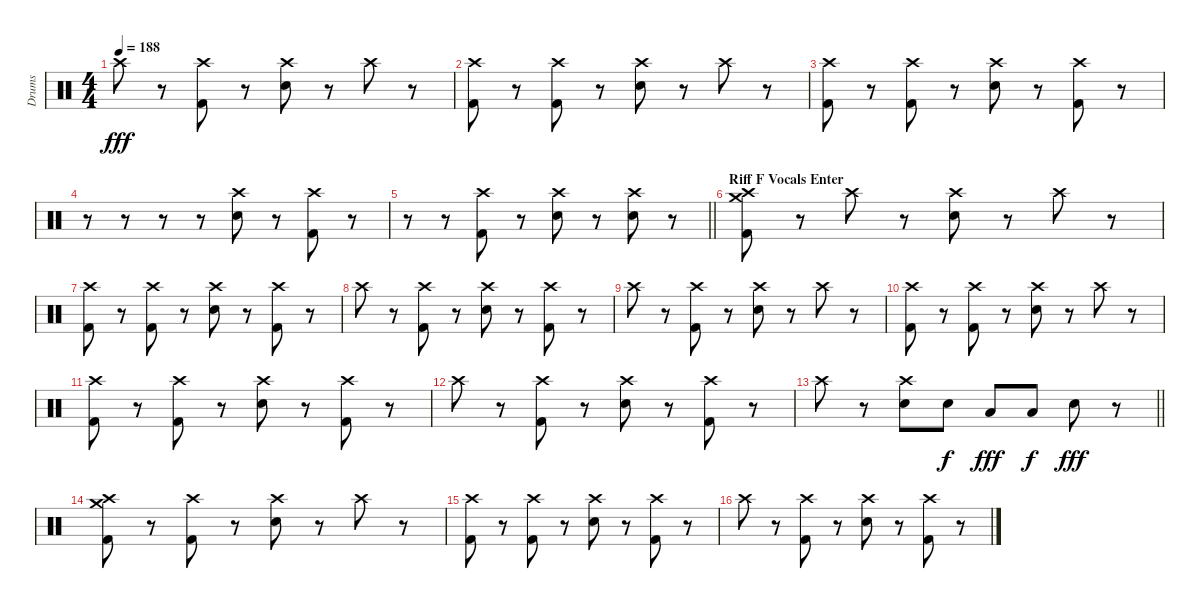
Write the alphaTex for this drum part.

\track ("Drums" "Drums") {instrument percussion}
\staff {score}
\articulation defaults
\ts (4 4)
\tempo 188
\clef neutral
\ks c "Crash high (hit)".8{dy fff}
r.8 ("Crash high (hit)" "Kick (hit) 2").8 r.8 ("Crash high (hit)" "Electric Snare (hit)").8 r.8 "Crash high (hit)".8 r.8 |
("Crash high (hit)" "Kick (hit) 2").8 r.8 ("Crash high (hit)" "Kick (hit) 2").8 r.8 ("Crash high (hit)" "Electric Snare (hit)").8 r.8 "Crash high (hit)".8 r.8 |
("Crash high (hit)" "Kick (hit) 2").8 r.8 ("Crash high (hit)" "Kick (hit) 2").8 r.8 ("Crash high (hit)" "Electric Snare (hit)").8 r.8 ("Crash high (hit)" "Kick (hit) 2").8 r.8 |
r.8 r.8 r.8 r.8 ("Crash high (hit)" "Electric Snare (hit)").8 r.8 ("Crash high (hit)" "Kick (hit) 2").8 r.8 |
\barLineRight lightlight
r.8 r.8 ("Crash high (hit)" "Kick (hit) 2").8 r.8 ("Crash high (hit)" "Electric Snare (hit)").8 r.8 ("Crash high (hit)" "Electric Snare (hit)").8 r.8 |
\section ("" "Riff F Vocals Enter")
("Crash medium (hit)" "Crash high (hit)" "Kick (hit) 2").8 r.8 "Crash high (hit)".8 r.8 ("Crash high (hit)" "Electric Snare (hit)").8 r.8 "Crash high (hit)".8 r.8 |
("Crash high (hit)" "Kick (hit) 2").8 r.8 ("Crash high (hit)" "Kick (hit) 2").8 r.8 ("Crash high (hit)" "Electric Snare (hit)").8 r.8 ("Crash high (hit)" "Kick (hit) 2").8 r.8 |
"Crash high (hit)".8 r.8 ("Crash high (hit)" "Kick (hit) 2").8 r.8 ("Crash high (hit)" "Electric Snare (hit)").8 r.8 ("Crash high (hit)" "Kick (hit) 2").8 r.8 |
"Crash high (hit)".8 r.8 ("Crash high (hit)" "Kick (hit) 2").8 r.8 ("Crash high (hit)" "Electric Snare (hit)").8 r.8 "Crash high (hit)".8 r.8 |
("Crash high (hit)" "Kick (hit) 2").8 r.8 ("Crash high (hit)" "Kick (hit) 2").8 r.8 ("Crash high (hit)" "Electric Snare (hit)").8 r.8 "Crash high (hit)".8 r.8 |
("Crash high (hit)" "Kick (hit) 2").8 r.8 ("Crash high (hit)" "Kick (hit) 2").8 r.8 ("Crash high (hit)" "Electric Snare (hit)").8 r.8 ("Crash high (hit)" "Kick (hit) 2").8 r.8 |
"Crash high (hit)".8 r.8 ("Crash high (hit)" "Kick (hit) 2").8 r.8 ("Crash high (hit)" "Electric Snare (hit)").8 r.8 ("Crash high (hit)" "Kick (hit) 2").8 r.8 |
\barLineRight lightlight "Crash high (hit)".8
r.8 ("Crash high (hit)" "Electric Snare (hit)").8 "Electric Snare (hit)".8{dy f} "Low Tom (hit)".8{dy fff} "Low Tom (hit)".8{dy f} "Electric Snare (hit)".8{dy fff} r.8 |
("Crash medium (hit)" "Crash high (hit)" "Kick (hit) 2").8 r.8 ("Crash high (hit)" "Kick (hit) 2").8 r.8 ("Crash high (hit)" "Electric Snare (hit)").8 r.8 "Crash high (hit)".8 r.8 |
("Crash high (hit)" "Kick (hit) 2").8 r.8 ("Crash high (hit)" "Kick (hit) 2").8 r.8 ("Crash high (hit)" "Electric Snare (hit)").8 r.8 ("Crash high (hit)" "Kick (hit) 2").8 r.8 |
"Crash high (hit)".8 r.8 ("Crash high (hit)" "Kick (hit) 2").8 r.8 ("Crash high (hit)" "Electric Snare (hit)").8 r.8 ("Crash high (hit)" "Kick (hit) 2").8 r.8
